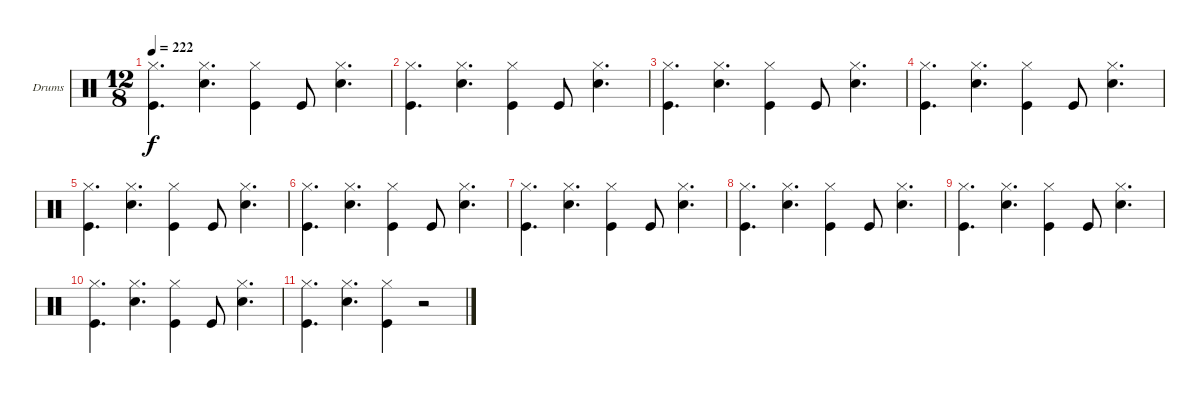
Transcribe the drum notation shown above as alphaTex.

\bracketExtendMode nobrackets
\firstSystemTrackNameOrientation horizontal
\otherSystemsTrackNameOrientation horizontal
\track ("Drumkit" "Drums") {instrument percussion}
\staff {score}
\articulation defaults
\ts (12 8)
\tempo 222
\clef neutral
\ks c
("Hi-Hat (closed)" "Kick (hit)").4{d dy f} ("Hi-Hat (closed)" "Snare (hit) 2").4{d} ("Hi-Hat (closed)" "Kick (hit)").4 "Kick (hit)".8 ("Hi-Hat (closed)" "Snare (hit) 2").4{d} |
("Hi-Hat (closed)" "Kick (hit)").4{d} ("Hi-Hat (closed)" "Snare (hit) 2").4{d} ("Hi-Hat (closed)" "Kick (hit)").4 "Kick (hit)".8 ("Hi-Hat (closed)" "Snare (hit) 2").4{d} |
("Hi-Hat (closed)" "Kick (hit)").4{d} ("Hi-Hat (closed)" "Snare (hit) 2").4{d} ("Hi-Hat (closed)" "Kick (hit)").4 "Kick (hit)".8 ("Hi-Hat (closed)" "Snare (hit) 2").4{d} |
("Hi-Hat (closed)" "Kick (hit)").4{d} ("Hi-Hat (closed)" "Snare (hit) 2").4{d} ("Hi-Hat (closed)" "Kick (hit)").4 "Kick (hit)".8 ("Hi-Hat (closed)" "Snare (hit) 2").4{d} |
("Hi-Hat (closed)" "Kick (hit)").4{d} ("Hi-Hat (closed)" "Snare (hit) 2").4{d} ("Hi-Hat (closed)" "Kick (hit)").4 "Kick (hit)".8 ("Hi-Hat (closed)" "Snare (hit) 2").4{d} |
("Hi-Hat (closed)" "Kick (hit)").4{d} ("Hi-Hat (closed)" "Snare (hit) 2").4{d} ("Hi-Hat (closed)" "Kick (hit)").4 "Kick (hit)".8 ("Hi-Hat (closed)" "Snare (hit) 2").4{d} |
("Hi-Hat (closed)" "Kick (hit)").4{d} ("Hi-Hat (closed)" "Snare (hit) 2").4{d} ("Hi-Hat (closed)" "Kick (hit)").4 "Kick (hit)".8 ("Hi-Hat (closed)" "Snare (hit) 2").4{d} |
("Hi-Hat (closed)" "Kick (hit)").4{d} ("Hi-Hat (closed)" "Snare (hit) 2").4{d} ("Hi-Hat (closed)" "Kick (hit)").4 "Kick (hit)".8 ("Hi-Hat (closed)" "Snare (hit) 2").4{d} |
("Hi-Hat (closed)" "Kick (hit)").4{d} ("Hi-Hat (closed)" "Snare (hit) 2").4{d} ("Hi-Hat (closed)" "Kick (hit)").4 "Kick (hit)".8 ("Hi-Hat (closed)" "Snare (hit) 2").4{d} |
("Hi-Hat (closed)" "Kick (hit)").4{d} ("Hi-Hat (closed)" "Snare (hit) 2").4{d} ("Hi-Hat (closed)" "Kick (hit)").4 "Kick (hit)".8 ("Hi-Hat (closed)" "Snare (hit) 2").4{d} |
("Hi-Hat (closed)" "Kick (hit)").4{d} ("Hi-Hat (closed)" "Snare (hit) 2").4{d} ("Hi-Hat (closed)" "Kick (hit)").4 r.2
